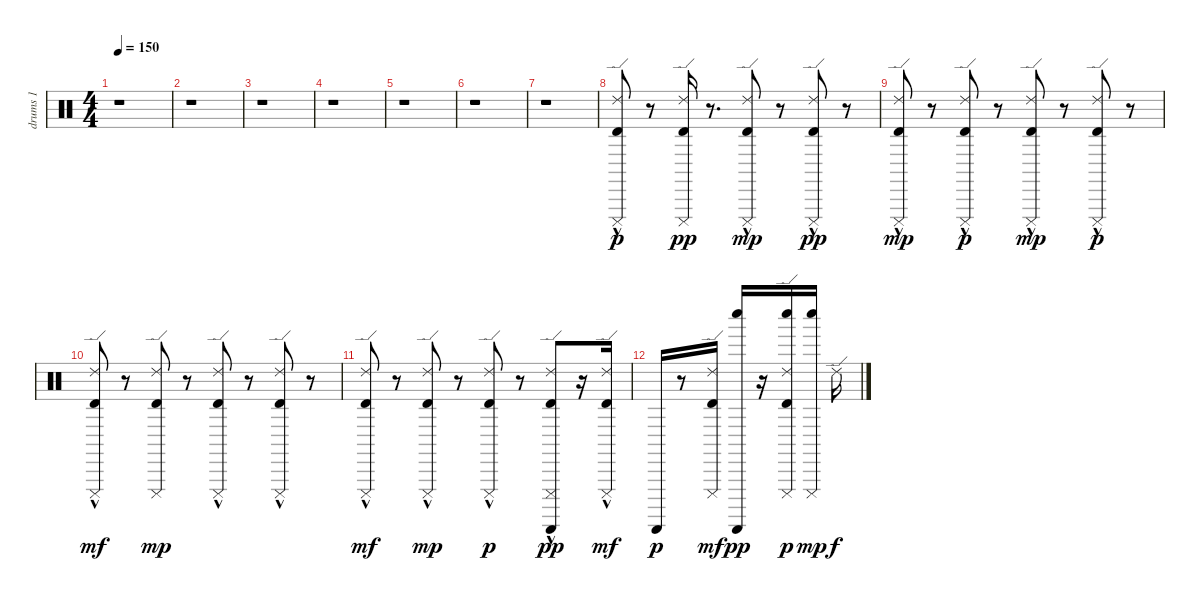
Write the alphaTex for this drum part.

\track ("drums 1" "drums 1") {instrument percussion}
\staff {score}
\articulation defaults
\ts (4 4)
\tempo 150
\clef neutral
\ks c
r.1{dy p} |
r.1 |
r.1 |
r.1 |
r.1 |
r.1 |
r.1 |
("Cuica (mute)"{hac} "Ride (edge) 2" "Timbale high (hit)").8 r.8 ("Ride (edge) 2" "Cuica (mute)" "Timbale high (hit)").16{dy pp} r.8{d} ("Cuica (mute)"{hac} "Ride (edge) 2" "Timbale high (hit)").8{dy mp} r.8 ("Cuica (mute)"{hac} "Ride (edge) 2" "Timbale high (hit)").8{dy pp} r.8 |
("Cuica (mute)"{hac} "Ride (edge) 2" "Timbale high (hit)").8{dy mp} r.8 ("Cuica (mute)"{hac} "Timbale high (hit)"{hac} "Ride (edge) 2").8{dy p} r.8 ("Cuica (mute)"{hac} "Ride (edge) 2" "Timbale high (hit)").8{dy mp} r.8 ("Cuica (mute)"{hac} "Ride (edge) 2" "Timbale high (hit)").8{dy p} r.8 |
("Cuica (mute)"{hac} "Timbale high (hit)" "Ride (edge) 2").8{dy mf} r.8 ("Cuica (mute)" "Timbale high (hit)" "Ride (edge) 2").8{dy mp} r.8 ("Timbale high (hit)" "Ride (edge) 2" "Cuica (mute)"{hac}).8 r.8 ("Cuica (mute)"{hac} "Ride (edge) 2" "Timbale high (hit)").8 r.8 |
("Cuica (mute)"{hac} "Ride (edge) 2" "Timbale high (hit)").8{dy mf} r.8 ("Cuica (mute)"{hac} "Ride (edge) 2" "Timbale high (hit)").8{dy mp} r.8 ("Ride (edge) 2"{hac} "Timbale high (hit)"{hac} "Cuica (mute)"{hac}).8{dy p} r.8 ("Cuica (mute)"{hac} "Ride (edge) 2" "Timbale high (hit)" "Guiro (scrap-return)").8{dy pp} r.16 ("Cuica (mute)"{hac} "Ride (edge) 2" "Timbale high (hit)").16{dy mf} |
"Guiro (scrap-return)".16{dy p} r.8 ("Cuica (mute)" "Timbale high (hit)" "Ride (edge) 2").16{dy mf} ("Whistle low (hit)" "Guiro (scrap-return)").16{dy pp} r.16 ("Cuica (mute)" "Timbale high (hit)" "Ride (edge) 2" "Whistle low (hit)").16{dy p} ("Cuica (mute)" "Whistle low (hit)").16{dy mp} "Ride (edge) 2".16{dy f}
